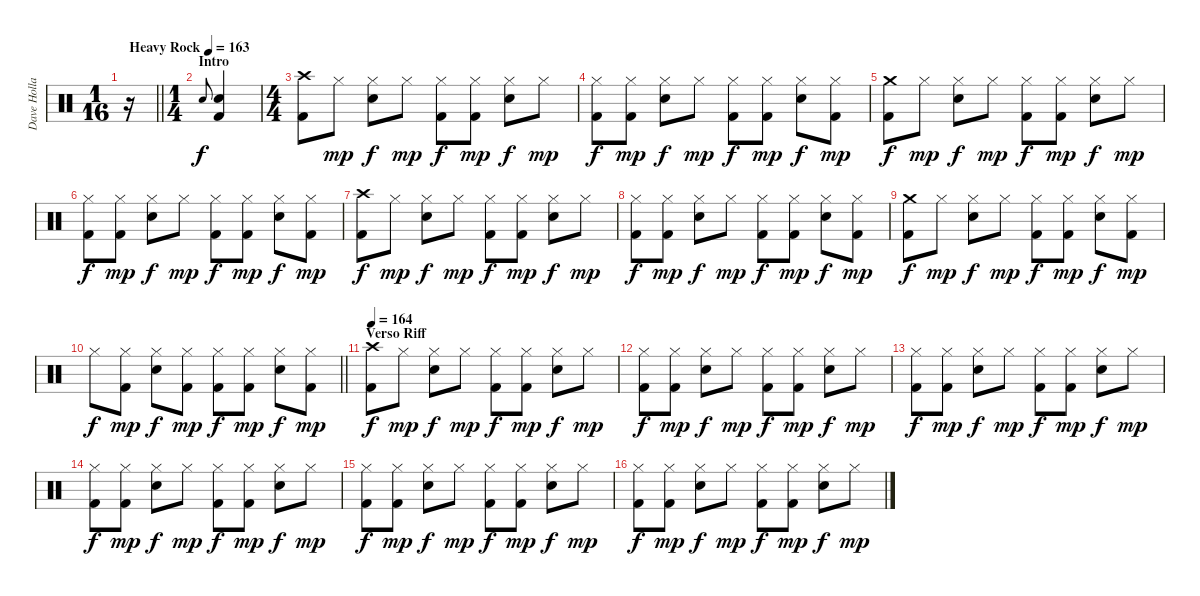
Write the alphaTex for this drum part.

\track ("Dave Holland" "Dave Holla") {instrument percussion}
\staff {score}
\articulation defaults
\ts (1 16)
\tempo (163 "Heavy Rock")
\clef neutral
\barLineRight lightlight
\ks c
r.16{dy f} |
\ts (1 4)
\section ("" "Intro")
"Snare (hit) 2".8{gr onbeat} ("Snare (hit) 2" "Kick (hit) 2").4 |
\ts (4 4)
("Crash high (hit)" "Kick (hit) 2").8 "Hi-Hat (closed)".8{dy mp} ("Hi-Hat (closed)" "Snare (hit) 2").8{dy f} "Hi-Hat (closed)".8{dy mp} ("Hi-Hat (closed)" "Kick (hit) 2").8{dy f} ("Hi-Hat (closed)" "Kick (hit) 2").8{dy mp} ("Hi-Hat (closed)" "Snare (hit) 2").8{dy f} "Hi-Hat (closed)".8{dy mp} |
("Hi-Hat (closed)" "Kick (hit) 2").8{dy f} ("Hi-Hat (closed)" "Kick (hit) 2").8{dy mp} ("Hi-Hat (closed)" "Snare (hit) 2").8{dy f} "Hi-Hat (closed)".8{dy mp} ("Hi-Hat (closed)" "Kick (hit) 2").8{dy f} ("Hi-Hat (closed)" "Kick (hit) 2").8{dy mp} ("Hi-Hat (closed)" "Snare (hit) 2").8{dy f} ("Hi-Hat (closed)" "Kick (hit) 2").8{dy mp} |
("Crash medium (hit)" "Kick (hit) 2").8{dy f} "Hi-Hat (closed)".8{dy mp} ("Hi-Hat (closed)" "Snare (hit) 2").8{dy f} "Hi-Hat (closed)".8{dy mp} ("Hi-Hat (closed)" "Kick (hit) 2").8{dy f} ("Hi-Hat (closed)" "Kick (hit) 2").8{dy mp} ("Hi-Hat (closed)" "Snare (hit) 2").8{dy f} "Hi-Hat (closed)".8{dy mp} |
("Hi-Hat (closed)" "Kick (hit) 2").8{dy f} ("Hi-Hat (closed)" "Kick (hit) 2").8{dy mp} ("Hi-Hat (closed)" "Snare (hit) 2").8{dy f} "Hi-Hat (closed)".8{dy mp} ("Hi-Hat (closed)" "Kick (hit) 2").8{dy f} ("Hi-Hat (closed)" "Kick (hit) 2").8{dy mp} ("Hi-Hat (closed)" "Snare (hit) 2").8{dy f} ("Hi-Hat (closed)" "Kick (hit) 2").8{dy mp} |
("Crash high (hit)" "Kick (hit) 2").8{dy f} "Hi-Hat (closed)".8{dy mp} ("Hi-Hat (closed)" "Snare (hit) 2").8{dy f} "Hi-Hat (closed)".8{dy mp} ("Hi-Hat (closed)" "Kick (hit) 2").8{dy f} ("Hi-Hat (closed)" "Kick (hit) 2").8{dy mp} ("Hi-Hat (closed)" "Snare (hit) 2").8{dy f} "Hi-Hat (closed)".8{dy mp} |
("Hi-Hat (closed)" "Kick (hit) 2").8{dy f} ("Hi-Hat (closed)" "Kick (hit) 2").8{dy mp} ("Hi-Hat (closed)" "Snare (hit) 2").8{dy f} "Hi-Hat (closed)".8{dy mp} ("Hi-Hat (closed)" "Kick (hit) 2").8{dy f} ("Hi-Hat (closed)" "Kick (hit) 2").8{dy mp} ("Hi-Hat (closed)" "Snare (hit) 2").8{dy f} ("Hi-Hat (closed)" "Kick (hit) 2").8{dy mp} |
("Crash medium (hit)" "Kick (hit) 2").8{dy f} "Hi-Hat (closed)".8{dy mp} ("Hi-Hat (closed)" "Snare (hit) 2").8{dy f} "Hi-Hat (closed)".8{dy mp} ("Hi-Hat (closed)" "Kick (hit) 2").8{dy f} ("Hi-Hat (closed)" "Kick (hit) 2").8{dy mp} ("Hi-Hat (closed)" "Snare (hit) 2").8{dy f} ("Hi-Hat (closed)" "Kick (hit) 2").8{dy mp} |
\barLineRight lightlight "Hi-Hat (closed)".8{dy f}
("Hi-Hat (closed)" "Kick (hit) 2").8{dy mp} ("Hi-Hat (closed)" "Snare (hit) 2").8{dy f} ("Hi-Hat (closed)" "Kick (hit) 2").8{dy mp} ("Hi-Hat (closed)" "Kick (hit) 2").8{dy f} ("Hi-Hat (closed)" "Kick (hit) 2").8{dy mp} ("Hi-Hat (closed)" "Snare (hit) 2").8{dy f} ("Hi-Hat (closed)" "Kick (hit) 2").8{dy mp} |
\section ("" "Verso Riff")
\tempo 164
("Crash high (hit)" "Kick (hit) 2").8{dy f} "Hi-Hat (closed)".8{dy mp} ("Hi-Hat (closed)" "Snare (hit) 2").8{dy f} "Hi-Hat (closed)".8{dy mp} ("Hi-Hat (closed)" "Kick (hit) 2").8{dy f} ("Hi-Hat (closed)" "Kick (hit) 2").8{dy mp} ("Hi-Hat (closed)" "Snare (hit) 2").8{dy f} "Hi-Hat (closed)".8{dy mp} |
("Hi-Hat (closed)" "Kick (hit) 2").8{dy f} ("Hi-Hat (closed)" "Kick (hit) 2").8{dy mp} ("Hi-Hat (closed)" "Snare (hit) 2").8{dy f} "Hi-Hat (closed)".8{dy mp} ("Hi-Hat (closed)" "Kick (hit) 2").8{dy f} ("Hi-Hat (closed)" "Kick (hit) 2").8{dy mp} ("Hi-Hat (closed)" "Snare (hit) 2").8{dy f} "Hi-Hat (closed)".8{dy mp} |
("Hi-Hat (closed)" "Kick (hit) 2").8{dy f} ("Hi-Hat (closed)" "Kick (hit) 2").8{dy mp} ("Hi-Hat (closed)" "Snare (hit) 2").8{dy f} "Hi-Hat (closed)".8{dy mp} ("Hi-Hat (closed)" "Kick (hit) 2").8{dy f} ("Hi-Hat (closed)" "Kick (hit) 2").8{dy mp} ("Hi-Hat (closed)" "Snare (hit) 2").8{dy f} "Hi-Hat (closed)".8{dy mp} |
("Hi-Hat (closed)" "Kick (hit) 2").8{dy f} ("Hi-Hat (closed)" "Kick (hit) 2").8{dy mp} ("Hi-Hat (closed)" "Snare (hit) 2").8{dy f} "Hi-Hat (closed)".8{dy mp} ("Hi-Hat (closed)" "Kick (hit) 2").8{dy f} ("Hi-Hat (closed)" "Kick (hit) 2").8{dy mp} ("Hi-Hat (closed)" "Snare (hit) 2").8{dy f} "Hi-Hat (closed)".8{dy mp} |
("Hi-Hat (closed)" "Kick (hit) 2").8{dy f} ("Hi-Hat (closed)" "Kick (hit) 2").8{dy mp} ("Hi-Hat (closed)" "Snare (hit) 2").8{dy f} "Hi-Hat (closed)".8{dy mp} ("Hi-Hat (closed)" "Kick (hit) 2").8{dy f} ("Hi-Hat (closed)" "Kick (hit) 2").8{dy mp} ("Hi-Hat (closed)" "Snare (hit) 2").8{dy f} "Hi-Hat (closed)".8{dy mp} |
("Hi-Hat (closed)" "Kick (hit) 2").8{dy f} ("Hi-Hat (closed)" "Kick (hit) 2").8{dy mp} ("Hi-Hat (closed)" "Snare (hit) 2").8{dy f} "Hi-Hat (closed)".8{dy mp} ("Hi-Hat (closed)" "Kick (hit) 2").8{dy f} ("Hi-Hat (closed)" "Kick (hit) 2").8{dy mp} ("Hi-Hat (closed)" "Snare (hit) 2").8{dy f} "Hi-Hat (closed)".8{dy mp}
